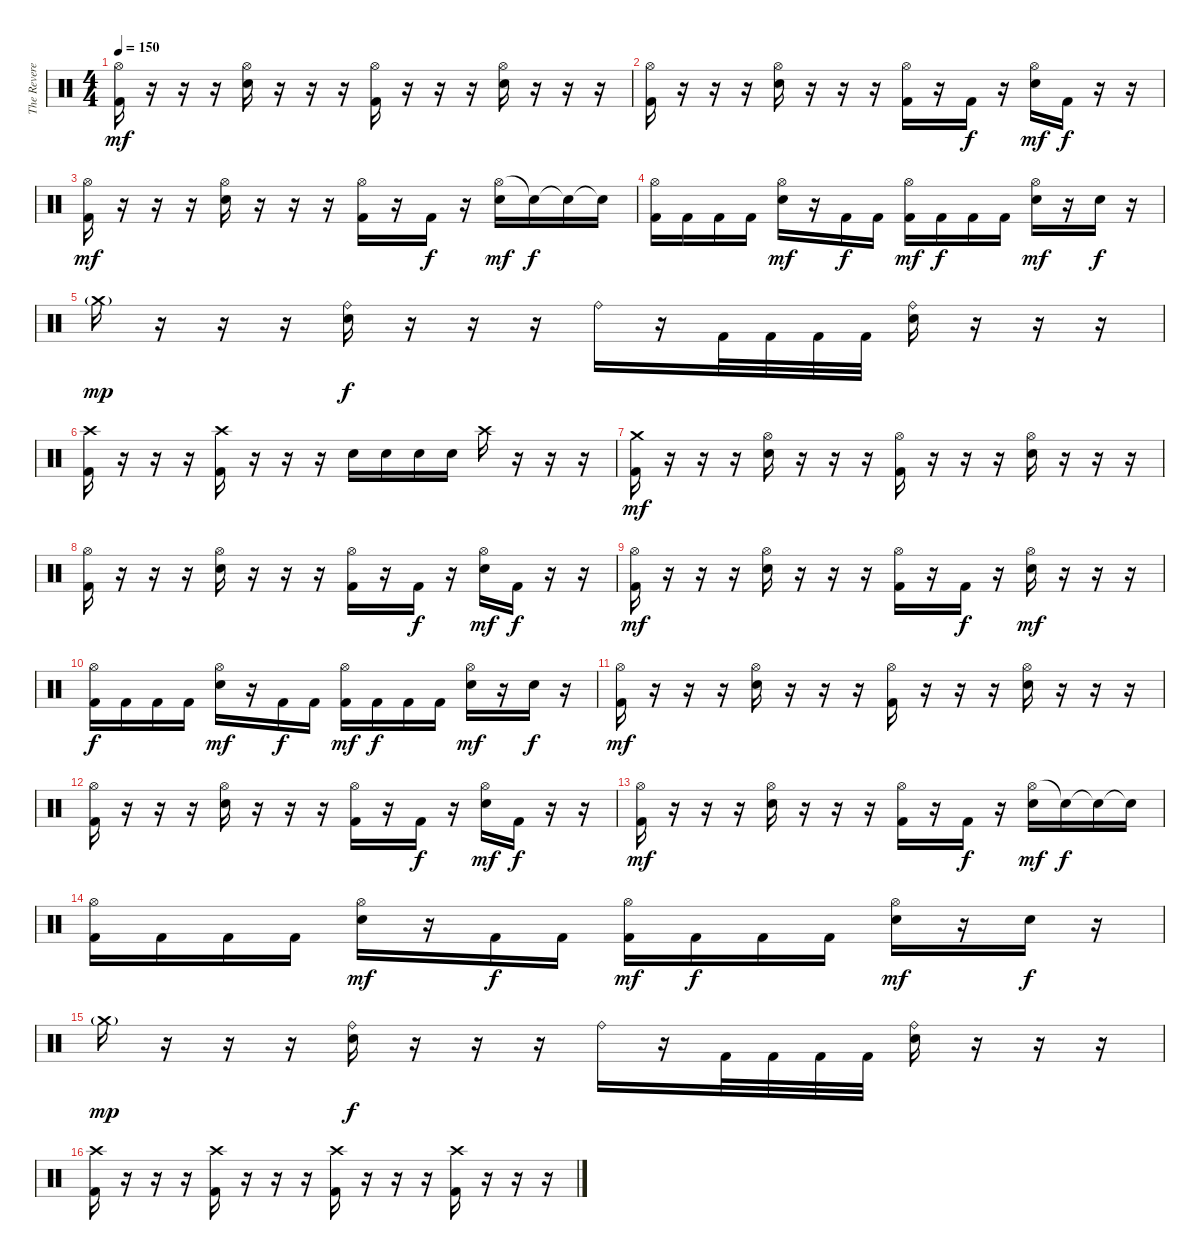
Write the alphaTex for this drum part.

\track ("The Reverend" "The Revere") {instrument percussion}
\staff {score}
\articulation defaults
\ts (4 4)
\tempo 150
\clef neutral
\ks c
("Hi-Hat (open)" "Kick (hit) 2").16{dy mf} r.16 r.16 r.16 ("Hi-Hat (open)" "Electric Snare (hit)").16 r.16 r.16 r.16 ("Hi-Hat (open)" "Kick (hit) 2").16 r.16 r.16 r.16 ("Hi-Hat (open)" "Electric Snare (hit)").16 r.16 r.16 r.16 |
("Hi-Hat (open)" "Kick (hit) 2").16 r.16 r.16 r.16 ("Hi-Hat (open)" "Electric Snare (hit)").16 r.16 r.16 r.16 ("Hi-Hat (open)" "Kick (hit) 2").16 r.16 "Kick (hit) 2".16{dy f} r.16 ("Hi-Hat (open)" "Electric Snare (hit)").16{dy mf} "Kick (hit) 2".16{dy f} r.16 r.16 |
("Hi-Hat (open)" "Kick (hit) 2").16{dy mf} r.16 r.16 r.16 ("Hi-Hat (open)" "Electric Snare (hit)").16 r.16 r.16 r.16 ("Hi-Hat (open)" "Kick (hit) 2").16 r.16 "Kick (hit) 2".16{dy f} r.16 ("Hi-Hat (open)" "Electric Snare (hit)").16{dy mf} "Snare (hit)"{t}.16{dy f} "Snare (hit)"{t}.16 "Snare (hit)"{t}.16 |
("Hi-Hat (open)" "Kick (hit) 2").16 "Kick (hit) 2".16 "Kick (hit) 2".16 "Kick (hit) 2".16 ("Hi-Hat (open)" "Electric Snare (hit)").16{dy mf} r.16 "Kick (hit) 2".16{dy f} "Kick (hit) 2".16 ("Hi-Hat (open)" "Kick (hit) 2").16{dy mf} "Kick (hit) 2".16{dy f} "Kick (hit) 2".16 "Kick (hit) 2".16 ("Hi-Hat (open)" "Electric Snare (hit)").16{dy mf} r.16 "Electric Snare (hit)".16{dy f} r.16 |
"Crash medium (hit)"{g}.16{dy mp} r.16 r.16 r.16 ("Ride (bell)" "Electric Snare (hit)").16{dy f} r.16 r.16 r.16 "Ride (bell)".16 r.16 "Kick (hit) 2".32 "Kick (hit) 2".32 "Kick (hit) 2".32 "Kick (hit) 2".32 ("Ride (bell)" "Electric Snare (hit)").16 r.16 r.16 r.16 |
("Crash high (hit)" "Kick (hit) 2").16 r.16 r.16 r.16 ("Crash high (hit)" "Kick (hit) 2").16 r.16 r.16 r.16 "Electric Snare (hit)".16 "Electric Snare (hit)".16 "Electric Snare (hit)".16 "Electric Snare (hit)".16 "Crash high (hit)".16 r.16 r.16 r.16 |
("Crash medium (hit)" "Kick (hit) 2").16{dy mf} r.16 r.16 r.16 ("Hi-Hat (open)" "Electric Snare (hit)").16 r.16 r.16 r.16 ("Hi-Hat (open)" "Kick (hit) 2").16 r.16 r.16 r.16 ("Hi-Hat (open)" "Electric Snare (hit)").16 r.16 r.16 r.16 |
("Hi-Hat (open)" "Kick (hit) 2").16 r.16 r.16 r.16 ("Hi-Hat (open)" "Electric Snare (hit)").16 r.16 r.16 r.16 ("Hi-Hat (open)" "Kick (hit) 2").16 r.16 "Kick (hit) 2".16{dy f} r.16 ("Hi-Hat (open)" "Electric Snare (hit)").16{dy mf} "Kick (hit) 2".16{dy f} r.16 r.16 |
("Hi-Hat (open)" "Kick (hit) 2").16{dy mf} r.16 r.16 r.16 ("Hi-Hat (open)" "Electric Snare (hit)").16 r.16 r.16 r.16 ("Hi-Hat (open)" "Kick (hit) 2").16 r.16 "Kick (hit) 2".16{dy f} r.16 ("Hi-Hat (open)" "Electric Snare (hit)").16{dy mf} r.16 r.16 r.16 |
("Hi-Hat (open)" "Kick (hit) 2").16{dy f} "Kick (hit) 2".16 "Kick (hit) 2".16 "Kick (hit) 2".16 ("Hi-Hat (open)" "Electric Snare (hit)").16{dy mf} r.16 "Kick (hit) 2".16{dy f} "Kick (hit) 2".16 ("Hi-Hat (open)" "Kick (hit) 2").16{dy mf} "Kick (hit) 2".16{dy f} "Kick (hit) 2".16 "Kick (hit) 2".16 ("Hi-Hat (open)" "Electric Snare (hit)").16{dy mf} r.16 "Electric Snare (hit)".16{dy f} r.16 |
("Hi-Hat (open)" "Kick (hit) 2").16{dy mf} r.16 r.16 r.16 ("Hi-Hat (open)" "Electric Snare (hit)").16 r.16 r.16 r.16 ("Hi-Hat (open)" "Kick (hit) 2").16 r.16 r.16 r.16 ("Hi-Hat (open)" "Electric Snare (hit)").16 r.16 r.16 r.16 |
("Hi-Hat (open)" "Kick (hit) 2").16 r.16 r.16 r.16 ("Hi-Hat (open)" "Electric Snare (hit)").16 r.16 r.16 r.16 ("Hi-Hat (open)" "Kick (hit) 2").16 r.16 "Kick (hit) 2".16{dy f} r.16 ("Hi-Hat (open)" "Electric Snare (hit)").16{dy mf} "Kick (hit) 2".16{dy f} r.16 r.16 |
("Hi-Hat (open)" "Kick (hit) 2").16{dy mf} r.16 r.16 r.16 ("Hi-Hat (open)" "Electric Snare (hit)").16 r.16 r.16 r.16 ("Hi-Hat (open)" "Kick (hit) 2").16 r.16 "Kick (hit) 2".16{dy f} r.16 ("Hi-Hat (open)" "Electric Snare (hit)").16{dy mf} "Snare (hit)"{t}.16{dy f} "Snare (hit)"{t}.16 "Snare (hit)"{t}.16 |
("Hi-Hat (open)" "Kick (hit) 2").16 "Kick (hit) 2".16 "Kick (hit) 2".16 "Kick (hit) 2".16 ("Hi-Hat (open)" "Electric Snare (hit)").16{dy mf} r.16 "Kick (hit) 2".16{dy f} "Kick (hit) 2".16 ("Hi-Hat (open)" "Kick (hit) 2").16{dy mf} "Kick (hit) 2".16{dy f} "Kick (hit) 2".16 "Kick (hit) 2".16 ("Hi-Hat (open)" "Electric Snare (hit)").16{dy mf} r.16 "Electric Snare (hit)".16{dy f} r.16 |
"Crash medium (hit)"{g}.16{dy mp} r.16 r.16 r.16 ("Ride (bell)" "Electric Snare (hit)").16{dy f} r.16 r.16 r.16 "Ride (bell)".16 r.16 "Kick (hit) 2".32 "Kick (hit) 2".32 "Kick (hit) 2".32 "Kick (hit) 2".32 ("Ride (bell)" "Electric Snare (hit)").16 r.16 r.16 r.16 |
("Crash high (hit)" "Kick (hit) 2").16 r.16 r.16 r.16 ("Crash high (hit)" "Kick (hit) 2").16 r.16 r.16 r.16 ("Crash high (hit)" "Kick (hit) 2").16 r.16 r.16 r.16 ("Crash high (hit)" "Kick (hit) 2").16 r.16 r.16 r.16
